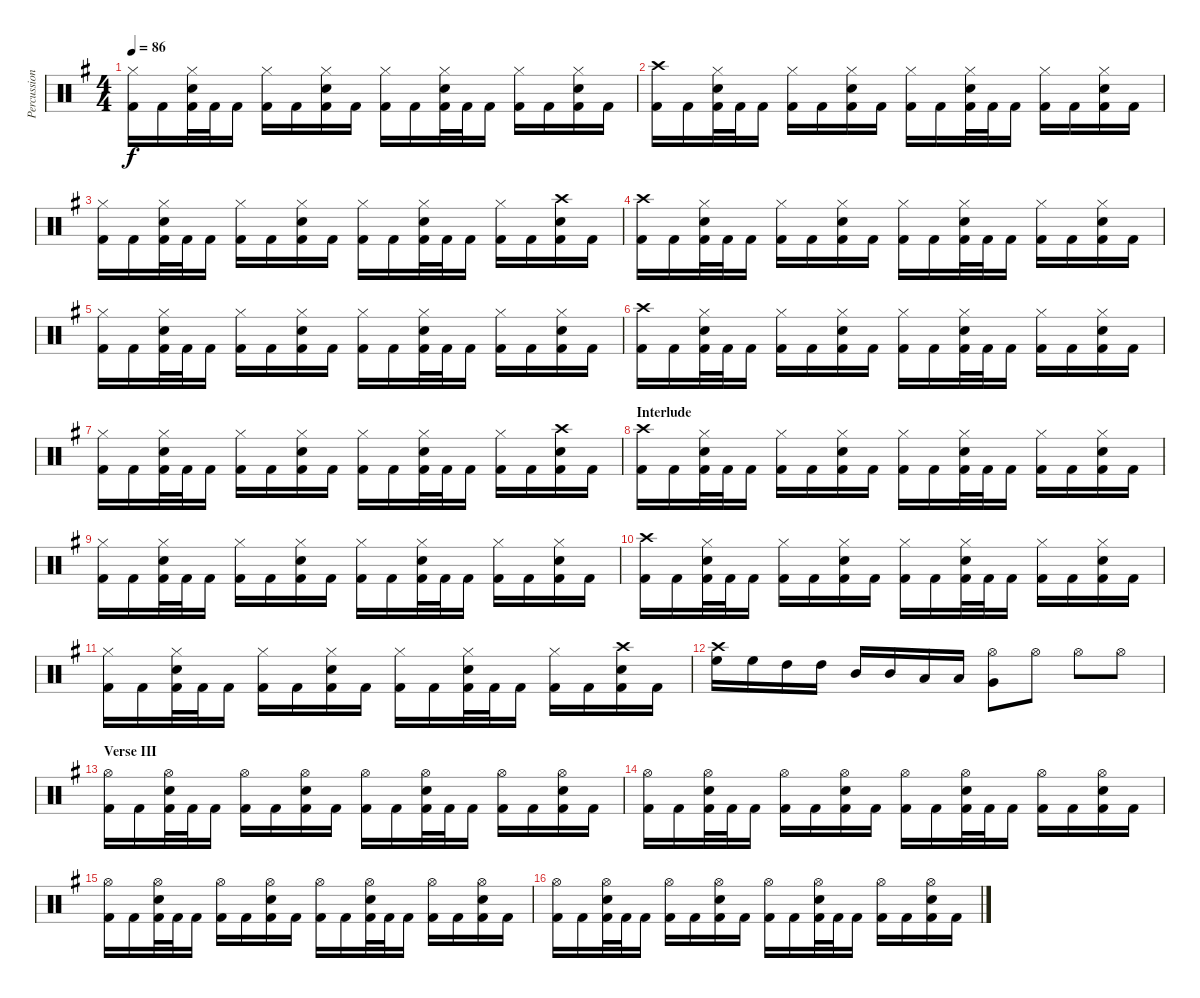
\track ("Percussions" "Percussion") {instrument percussion}
\staff {score}
\articulation defaults
\ts (4 4)
\tempo 86
\clef neutral
\ks eminor
("Hi-Hat (closed)" "Kick (hit) 2").16{dy f} "Kick (hit) 2".16 ("Hi-Hat (closed)" "Snare (hit) 2" "Kick (hit) 2").32 "Kick (hit) 2".32 "Kick (hit) 2".16 ("Hi-Hat (closed)" "Kick (hit) 2").16 "Kick (hit) 2".16 ("Hi-Hat (closed)" "Snare (hit) 2" "Kick (hit) 2").16 "Kick (hit) 2".16 ("Hi-Hat (closed)" "Kick (hit) 2").16 "Kick (hit) 2".16 ("Hi-Hat (closed)" "Snare (hit) 2" "Kick (hit) 2").32 "Kick (hit) 2".32 "Kick (hit) 2".16 ("Hi-Hat (closed)" "Kick (hit) 2").16 "Kick (hit) 2".16 ("Hi-Hat (closed)" "Snare (hit) 2" "Kick (hit) 2").16 "Kick (hit) 2".16 |
("Crash high (hit)" "Kick (hit) 2").16 "Kick (hit) 2".16 ("Hi-Hat (closed)" "Snare (hit) 2" "Kick (hit) 2").32 "Kick (hit) 2".32 "Kick (hit) 2".16 ("Hi-Hat (closed)" "Kick (hit) 2").16 "Kick (hit) 2".16 ("Hi-Hat (closed)" "Snare (hit) 2" "Kick (hit) 2").16 "Kick (hit) 2".16 ("Hi-Hat (closed)" "Kick (hit) 2").16 "Kick (hit) 2".16 ("Hi-Hat (closed)" "Snare (hit) 2" "Kick (hit) 2").32 "Kick (hit) 2".32 "Kick (hit) 2".16 ("Hi-Hat (closed)" "Kick (hit) 2").16 "Kick (hit) 2".16 ("Hi-Hat (closed)" "Snare (hit) 2" "Kick (hit) 2").16 "Kick (hit) 2".16 |
("Hi-Hat (closed)" "Kick (hit) 2").16 "Kick (hit) 2".16 ("Hi-Hat (closed)" "Snare (hit) 2" "Kick (hit) 2").32 "Kick (hit) 2".32 "Kick (hit) 2".16 ("Hi-Hat (closed)" "Kick (hit) 2").16 "Kick (hit) 2".16 ("Hi-Hat (closed)" "Snare (hit) 2" "Kick (hit) 2").16 "Kick (hit) 2".16 ("Hi-Hat (closed)" "Kick (hit) 2").16 "Kick (hit) 2".16 ("Hi-Hat (closed)" "Snare (hit) 2" "Kick (hit) 2").32 "Kick (hit) 2".32 "Kick (hit) 2".16 ("Hi-Hat (closed)" "Kick (hit) 2").16 "Kick (hit) 2".16 ("Crash high (hit)" "Snare (hit) 2" "Kick (hit) 2").16 "Kick (hit) 2".16 |
("Crash high (hit)" "Kick (hit) 2").16 "Kick (hit) 2".16 ("Hi-Hat (closed)" "Snare (hit) 2" "Kick (hit) 2").32 "Kick (hit) 2".32 "Kick (hit) 2".16 ("Hi-Hat (closed)" "Kick (hit) 2").16 "Kick (hit) 2".16 ("Hi-Hat (closed)" "Snare (hit) 2" "Kick (hit) 2").16 "Kick (hit) 2".16 ("Hi-Hat (closed)" "Kick (hit) 2").16 "Kick (hit) 2".16 ("Hi-Hat (closed)" "Snare (hit) 2" "Kick (hit) 2").32 "Kick (hit) 2".32 "Kick (hit) 2".16 ("Hi-Hat (closed)" "Kick (hit) 2").16 "Kick (hit) 2".16 ("Hi-Hat (closed)" "Snare (hit) 2" "Kick (hit) 2").16 "Kick (hit) 2".16 |
("Hi-Hat (closed)" "Kick (hit) 2").16 "Kick (hit) 2".16 ("Hi-Hat (closed)" "Snare (hit) 2" "Kick (hit) 2").32 "Kick (hit) 2".32 "Kick (hit) 2".16 ("Hi-Hat (closed)" "Kick (hit) 2").16 "Kick (hit) 2".16 ("Hi-Hat (closed)" "Snare (hit) 2" "Kick (hit) 2").16 "Kick (hit) 2".16 ("Hi-Hat (closed)" "Kick (hit) 2").16 "Kick (hit) 2".16 ("Hi-Hat (closed)" "Snare (hit) 2" "Kick (hit) 2").32 "Kick (hit) 2".32 "Kick (hit) 2".16 ("Hi-Hat (closed)" "Kick (hit) 2").16 "Kick (hit) 2".16 ("Hi-Hat (closed)" "Snare (hit) 2" "Kick (hit) 2").16 "Kick (hit) 2".16 |
("Crash high (hit)" "Kick (hit) 2").16 "Kick (hit) 2".16 ("Hi-Hat (closed)" "Snare (hit) 2" "Kick (hit) 2").32 "Kick (hit) 2".32 "Kick (hit) 2".16 ("Hi-Hat (closed)" "Kick (hit) 2").16 "Kick (hit) 2".16 ("Hi-Hat (closed)" "Snare (hit) 2" "Kick (hit) 2").16 "Kick (hit) 2".16 ("Hi-Hat (closed)" "Kick (hit) 2").16 "Kick (hit) 2".16 ("Hi-Hat (closed)" "Snare (hit) 2" "Kick (hit) 2").32 "Kick (hit) 2".32 "Kick (hit) 2".16 ("Hi-Hat (closed)" "Kick (hit) 2").16 "Kick (hit) 2".16 ("Hi-Hat (closed)" "Snare (hit) 2" "Kick (hit) 2").16 "Kick (hit) 2".16 |
("Hi-Hat (closed)" "Kick (hit) 2").16 "Kick (hit) 2".16 ("Hi-Hat (closed)" "Snare (hit) 2" "Kick (hit) 2").32 "Kick (hit) 2".32 "Kick (hit) 2".16 ("Hi-Hat (closed)" "Kick (hit) 2").16 "Kick (hit) 2".16 ("Hi-Hat (closed)" "Snare (hit) 2" "Kick (hit) 2").16 "Kick (hit) 2".16 ("Hi-Hat (closed)" "Kick (hit) 2").16 "Kick (hit) 2".16 ("Hi-Hat (closed)" "Snare (hit) 2" "Kick (hit) 2").32 "Kick (hit) 2".32 "Kick (hit) 2".16 ("Hi-Hat (closed)" "Kick (hit) 2").16 "Kick (hit) 2".16 ("Crash high (hit)" "Snare (hit) 2" "Kick (hit) 2").16 "Kick (hit) 2".16 |
\section ("" "Interlude")
("Crash high (hit)" "Kick (hit) 2").16 "Kick (hit) 2".16 ("Hi-Hat (closed)" "Snare (hit) 2" "Kick (hit) 2").32 "Kick (hit) 2".32 "Kick (hit) 2".16 ("Hi-Hat (closed)" "Kick (hit) 2").16 "Kick (hit) 2".16 ("Hi-Hat (closed)" "Snare (hit) 2" "Kick (hit) 2").16 "Kick (hit) 2".16 ("Hi-Hat (closed)" "Kick (hit) 2").16 "Kick (hit) 2".16 ("Hi-Hat (closed)" "Snare (hit) 2" "Kick (hit) 2").32 "Kick (hit) 2".32 "Kick (hit) 2".16 ("Hi-Hat (closed)" "Kick (hit) 2").16 "Kick (hit) 2".16 ("Hi-Hat (closed)" "Snare (hit) 2" "Kick (hit) 2").16 "Kick (hit) 2".16 |
("Hi-Hat (closed)" "Kick (hit) 2").16 "Kick (hit) 2".16 ("Hi-Hat (closed)" "Snare (hit) 2" "Kick (hit) 2").32 "Kick (hit) 2".32 "Kick (hit) 2".16 ("Hi-Hat (closed)" "Kick (hit) 2").16 "Kick (hit) 2".16 ("Hi-Hat (closed)" "Snare (hit) 2" "Kick (hit) 2").16 "Kick (hit) 2".16 ("Hi-Hat (closed)" "Kick (hit) 2").16 "Kick (hit) 2".16 ("Hi-Hat (closed)" "Snare (hit) 2" "Kick (hit) 2").32 "Kick (hit) 2".32 "Kick (hit) 2".16 ("Hi-Hat (closed)" "Kick (hit) 2").16 "Kick (hit) 2".16 ("Hi-Hat (closed)" "Snare (hit) 2" "Kick (hit) 2").16 "Kick (hit) 2".16 |
("Crash high (hit)" "Kick (hit) 2").16 "Kick (hit) 2".16 ("Hi-Hat (closed)" "Snare (hit) 2" "Kick (hit) 2").32 "Kick (hit) 2".32 "Kick (hit) 2".16 ("Hi-Hat (closed)" "Kick (hit) 2").16 "Kick (hit) 2".16 ("Hi-Hat (closed)" "Snare (hit) 2" "Kick (hit) 2").16 "Kick (hit) 2".16 ("Hi-Hat (closed)" "Kick (hit) 2").16 "Kick (hit) 2".16 ("Hi-Hat (closed)" "Snare (hit) 2" "Kick (hit) 2").32 "Kick (hit) 2".32 "Kick (hit) 2".16 ("Hi-Hat (closed)" "Kick (hit) 2").16 "Kick (hit) 2".16 ("Hi-Hat (closed)" "Snare (hit) 2" "Kick (hit) 2").16 "Kick (hit) 2".16 |
("Hi-Hat (closed)" "Kick (hit) 2").16 "Kick (hit) 2".16 ("Hi-Hat (closed)" "Snare (hit) 2" "Kick (hit) 2").32 "Kick (hit) 2".32 "Kick (hit) 2".16 ("Hi-Hat (closed)" "Kick (hit) 2").16 "Kick (hit) 2".16 ("Hi-Hat (closed)" "Snare (hit) 2" "Kick (hit) 2").16 "Kick (hit) 2".16 ("Hi-Hat (closed)" "Kick (hit) 2").16 "Kick (hit) 2".16 ("Hi-Hat (closed)" "Snare (hit) 2" "Kick (hit) 2").32 "Kick (hit) 2".32 "Kick (hit) 2".16 ("Hi-Hat (closed)" "Kick (hit) 2").16 "Kick (hit) 2".16 ("Crash high (hit)" "Snare (hit) 2" "Kick (hit) 2").16 "Kick (hit) 2".16 |
("Crash high (hit)" "High Floor Tom (hit)").16 "High Floor Tom (hit)".16 "High Tom (hit)".16 "High Tom (hit)".16 "Mid Tom (hit)".16 "Mid Tom (hit)".16 "Low Tom (hit)".16 "Low Tom (hit)".16 ("Hi-Hat (open)" "Very Low Tom (hit)").8 "Hi-Hat (open)".8 "Hi-Hat (open)".8 "Hi-Hat (open)".8 |
\section ("" "Verse III")
("Hi-Hat (open)" "Kick (hit) 2").16 "Kick (hit) 2".16 ("Hi-Hat (open)" "Snare (hit) 2" "Kick (hit) 2").32 "Kick (hit) 2".32 "Kick (hit) 2".16 ("Hi-Hat (open)" "Kick (hit) 2").16 "Kick (hit) 2".16 ("Hi-Hat (open)" "Snare (hit) 2" "Kick (hit) 2").16 "Kick (hit) 2".16 ("Hi-Hat (open)" "Kick (hit) 2").16 "Kick (hit) 2".16 ("Hi-Hat (open)" "Snare (hit) 2" "Kick (hit) 2").32 "Kick (hit) 2".32 "Kick (hit) 2".16 ("Hi-Hat (open)" "Kick (hit) 2").16 "Kick (hit) 2".16 ("Hi-Hat (open)" "Snare (hit) 2" "Kick (hit) 2").16 "Kick (hit) 2".16 |
("Hi-Hat (open)" "Kick (hit) 2").16 "Kick (hit) 2".16 ("Hi-Hat (open)" "Snare (hit) 2" "Kick (hit) 2").32 "Kick (hit) 2".32 "Kick (hit) 2".16 ("Hi-Hat (open)" "Kick (hit) 2").16 "Kick (hit) 2".16 ("Hi-Hat (open)" "Snare (hit) 2" "Kick (hit) 2").16 "Kick (hit) 2".16 ("Hi-Hat (open)" "Kick (hit) 2").16 "Kick (hit) 2".16 ("Hi-Hat (open)" "Snare (hit) 2" "Kick (hit) 2").32 "Kick (hit) 2".32 "Kick (hit) 2".16 ("Hi-Hat (open)" "Kick (hit) 2").16 "Kick (hit) 2".16 ("Hi-Hat (open)" "Snare (hit) 2" "Kick (hit) 2").16 "Kick (hit) 2".16 |
("Hi-Hat (open)" "Kick (hit) 2").16 "Kick (hit) 2".16 ("Hi-Hat (open)" "Snare (hit) 2" "Kick (hit) 2").32 "Kick (hit) 2".32 "Kick (hit) 2".16 ("Hi-Hat (open)" "Kick (hit) 2").16 "Kick (hit) 2".16 ("Hi-Hat (open)" "Snare (hit) 2" "Kick (hit) 2").16 "Kick (hit) 2".16 ("Hi-Hat (open)" "Kick (hit) 2").16 "Kick (hit) 2".16 ("Hi-Hat (open)" "Snare (hit) 2" "Kick (hit) 2").32 "Kick (hit) 2".32 "Kick (hit) 2".16 ("Hi-Hat (open)" "Kick (hit) 2").16 "Kick (hit) 2".16 ("Hi-Hat (open)" "Snare (hit) 2" "Kick (hit) 2").16 "Kick (hit) 2".16 |
("Hi-Hat (open)" "Kick (hit) 2").16 "Kick (hit) 2".16 ("Hi-Hat (open)" "Snare (hit) 2" "Kick (hit) 2").32 "Kick (hit) 2".32 "Kick (hit) 2".16 ("Hi-Hat (open)" "Kick (hit) 2").16 "Kick (hit) 2".16 ("Hi-Hat (open)" "Snare (hit) 2" "Kick (hit) 2").16 "Kick (hit) 2".16 ("Hi-Hat (open)" "Kick (hit) 2").16 "Kick (hit) 2".16 ("Hi-Hat (open)" "Snare (hit) 2" "Kick (hit) 2").32 "Kick (hit) 2".32 "Kick (hit) 2".16 ("Hi-Hat (open)" "Kick (hit) 2").16 "Kick (hit) 2".16 ("Hi-Hat (open)" "Snare (hit) 2" "Kick (hit) 2").16 "Kick (hit) 2".16
